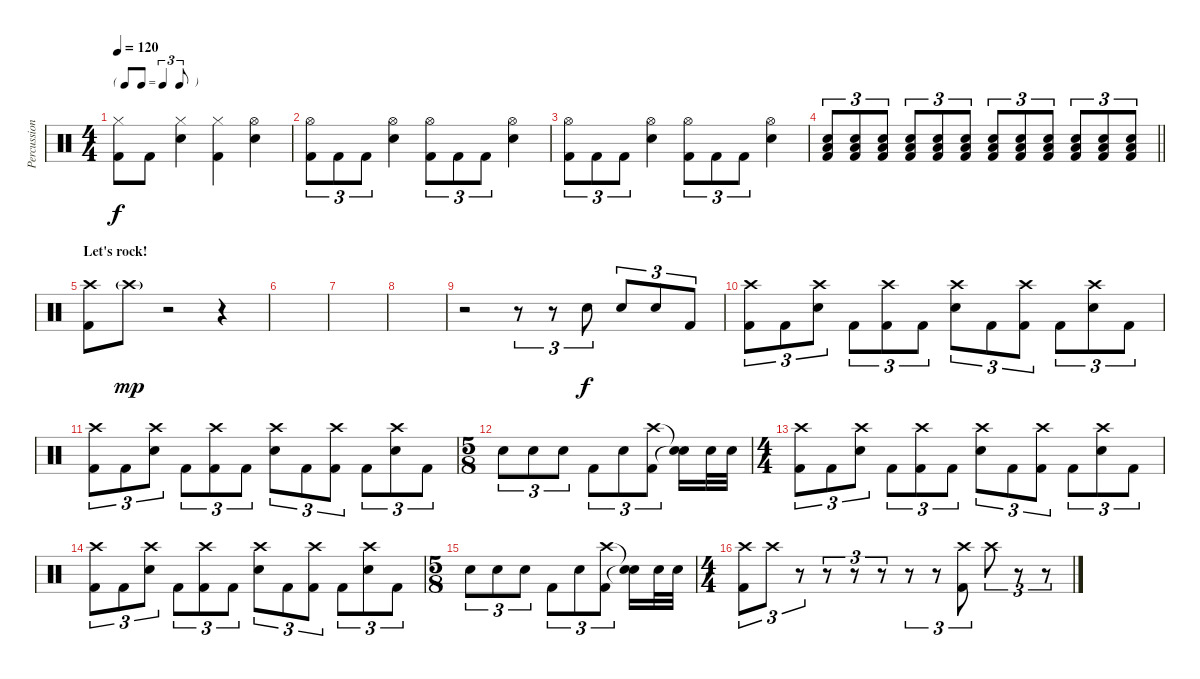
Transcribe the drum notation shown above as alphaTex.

\track ("Percussion" "Percussion") {instrument percussion}
\staff {score}
\articulation defaults
\ts (4 4)
\tf triplet8th
\tempo 120
\clef neutral
\ks c
("Hi-Hat (closed)" "Kick (hit) 2").8{dy f} "Kick (hit) 2".8 ("Hi-Hat (closed)" "Snare (hit) 2").4 ("Hi-Hat (closed)" "Kick (hit) 2").4 ("Hi-Hat (open)" "Snare (hit) 2").4 |
("Hi-Hat (open)" "Kick (hit) 2").8{tu (3 2)} "Kick (hit) 2".8{tu (3 2)} "Kick (hit) 2".8{tu (3 2)} ("Hi-Hat (open)" "Snare (hit) 2").4 ("Hi-Hat (open)" "Kick (hit) 2").8{tu (3 2)} "Kick (hit) 2".8{tu (3 2)} "Kick (hit) 2".8{tu (3 2)} ("Hi-Hat (open)" "Snare (hit) 2").4 |
("Hi-Hat (open)" "Kick (hit) 2").8{tu (3 2)} "Kick (hit) 2".8{tu (3 2)} "Kick (hit) 2".8{tu (3 2)} ("Hi-Hat (open)" "Snare (hit) 2").4 ("Hi-Hat (open)" "Kick (hit) 2").8{tu (3 2)} "Kick (hit) 2".8{tu (3 2)} "Kick (hit) 2".8{tu (3 2)} ("Hi-Hat (open)" "Snare (hit) 2").4 |
\barLineRight lightlight
("Low Floor Tom (hit)" "Snare (hit) 2" "Kick (hit) 2").8{tu (3 2)} ("Low Floor Tom (hit)" "Snare (hit) 2" "Kick (hit) 2").8{tu (3 2)} ("Low Floor Tom (hit)" "Snare (hit) 2" "Kick (hit) 2").8{tu (3 2)} ("Low Floor Tom (hit)" "Snare (hit) 2" "Kick (hit) 2").8{tu (3 2)} ("Low Floor Tom (hit)" "Snare (hit) 2" "Kick (hit) 2").8{tu (3 2)} ("Low Floor Tom (hit)" "Snare (hit) 2" "Kick (hit) 2").8{tu (3 2)} ("Low Floor Tom (hit)" "Snare (hit) 2" "Kick (hit) 2").8{tu (3 2)} ("Low Floor Tom (hit)" "Snare (hit) 2" "Kick (hit) 2").8{tu (3 2)} ("Low Floor Tom (hit)" "Snare (hit) 2" "Kick (hit) 2").8{tu (3 2)} ("Low Floor Tom (hit)" "Snare (hit) 2" "Kick (hit) 2").8{tu (3 2)} ("Low Floor Tom (hit)" "Snare (hit) 2" "Kick (hit) 2").8{tu (3 2)} ("Low Floor Tom (hit)" "Snare (hit) 2" "Kick (hit) 2").8{tu (3 2)} |
\section ("" "Let's rock!")
("Crash high (hit)" "Kick (hit) 2").8 "Crash high (hit)"{g}.8{dy mp volume 0} r.2 r.4 |
|
|
|
r.2 r.8{tu (3 2)} r.8{tu (3 2)} "Snare (hit) 2".8{tu (3 2) dy f} "Snare (hit) 2".8{tu (3 2)} "Snare (hit) 2".8{tu (3 2)} "Kick (hit) 2".8{tu (3 2)} |
("Crash high (hit)" "Kick (hit) 2").8{tu (3 2)} "Kick (hit) 2".8{tu (3 2)} ("Crash high (hit)" "Snare (hit) 2").8{tu (3 2)} "Kick (hit) 2".8{tu (3 2)} ("Crash high (hit)" "Kick (hit) 2").8{tu (3 2)} "Kick (hit) 2".8{tu (3 2)} ("Crash high (hit)" "Snare (hit) 2").8{tu (3 2)} "Kick (hit) 2".8{tu (3 2)} ("Crash high (hit)" "Kick (hit) 2").8{tu (3 2)} "Kick (hit) 2".8{tu (3 2)} ("Crash high (hit)" "Snare (hit) 2").8{tu (3 2)} "Kick (hit) 2".8{tu (3 2)} |
("Crash high (hit)" "Kick (hit) 2").8{tu (3 2)} "Kick (hit) 2".8{tu (3 2)} ("Crash high (hit)" "Snare (hit) 2").8{tu (3 2)} "Kick (hit) 2".8{tu (3 2)} ("Crash high (hit)" "Kick (hit) 2").8{tu (3 2)} "Kick (hit) 2".8{tu (3 2)} ("Crash high (hit)" "Snare (hit) 2").8{tu (3 2)} "Kick (hit) 2".8{tu (3 2)} ("Crash high (hit)" "Kick (hit) 2").8{tu (3 2)} "Kick (hit) 2".8{tu (3 2)} ("Crash high (hit)" "Snare (hit) 2").8{tu (3 2)} "Kick (hit) 2".8{tu (3 2)} |
\ts (5 8)
"Snare (hit) 2".8{tu (3 2)} "Snare (hit) 2".8{tu (3 2)} "Snare (hit) 2".8{tu (3 2)} "Kick (hit) 2".8{tu (3 2)} "Snare (hit) 2".8{tu (3 2)} ("Crash high (hit)" "Kick (hit) 2").8{tu (3 2)} ("Snare (hit)"{t} "Snare (hit)"{t}).16 "Snare (hit) 2".32 "Snare (hit) 2".32 |
\ts (4 4)
("Crash high (hit)" "Kick (hit) 2").8{tu (3 2)} "Kick (hit) 2".8{tu (3 2)} ("Crash high (hit)" "Snare (hit) 2").8{tu (3 2)} "Kick (hit) 2".8{tu (3 2)} ("Crash high (hit)" "Kick (hit) 2").8{tu (3 2)} "Kick (hit) 2".8{tu (3 2)} ("Crash high (hit)" "Snare (hit) 2").8{tu (3 2)} "Kick (hit) 2".8{tu (3 2)} ("Crash high (hit)" "Kick (hit) 2").8{tu (3 2)} "Kick (hit) 2".8{tu (3 2)} ("Crash high (hit)" "Snare (hit) 2").8{tu (3 2)} "Kick (hit) 2".8{tu (3 2)} |
("Crash high (hit)" "Kick (hit) 2").8{tu (3 2)} "Kick (hit) 2".8{tu (3 2)} ("Crash high (hit)" "Snare (hit) 2").8{tu (3 2)} "Kick (hit) 2".8{tu (3 2)} ("Crash high (hit)" "Kick (hit) 2").8{tu (3 2)} "Kick (hit) 2".8{tu (3 2)} ("Crash high (hit)" "Snare (hit) 2").8{tu (3 2)} "Kick (hit) 2".8{tu (3 2)} ("Crash high (hit)" "Kick (hit) 2").8{tu (3 2)} "Kick (hit) 2".8{tu (3 2)} ("Crash high (hit)" "Snare (hit) 2").8{tu (3 2)} "Kick (hit) 2".8{tu (3 2)} |
\ts (5 8)
"Snare (hit) 2".8{tu (3 2)} "Snare (hit) 2".8{tu (3 2)} "Snare (hit) 2".8{tu (3 2)} "Kick (hit) 2".8{tu (3 2)} "Snare (hit) 2".8{tu (3 2)} ("Crash high (hit)" "Kick (hit) 2").8{tu (3 2)} ("Snare (hit)"{t} "Snare (hit)"{t}).16 "Snare (hit) 2".32 "Snare (hit) 2".32 |
\ts (4 4)
("Crash high (hit)" "Kick (hit) 2").8{tu (3 2)} "Crash high (hit)".8{tu (3 2) volume 0} r.8{tu (3 2)} r.8{tu (3 2)} r.8{tu (3 2)} r.8{tu (3 2)} r.8{tu (3 2)} r.8{tu (3 2)} ("Crash high (hit)" "Kick (hit) 2").8{tu (3 2) volume 13} "Crash high (hit)".8{tu (3 2) volume 0} r.8{tu (3 2)} r.8{tu (3 2)}
